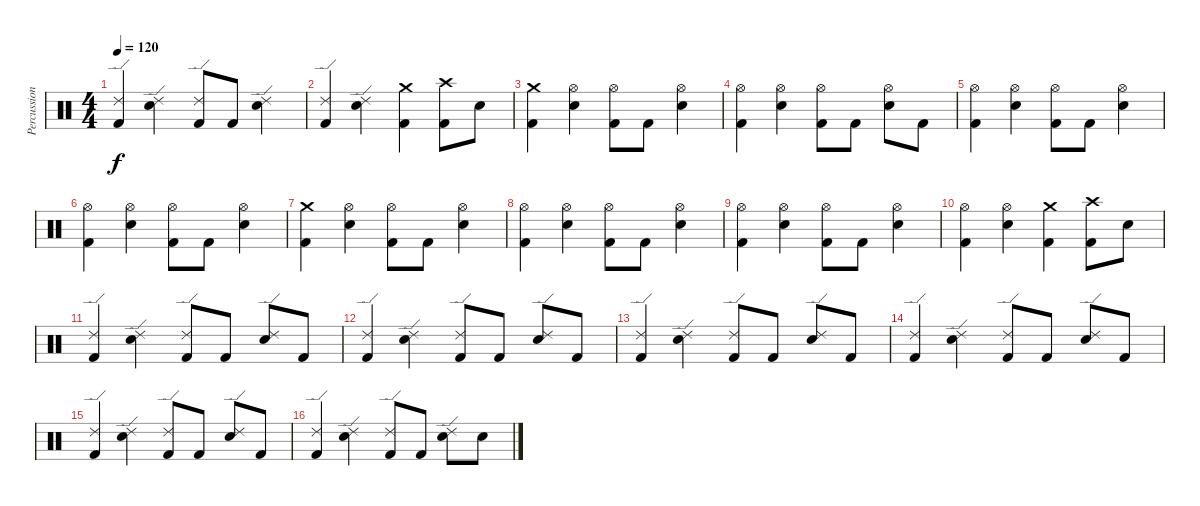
\track ("Percussion" "Percussion") {instrument percussion}
\staff {score}
\articulation defaults
\ts (4 4)
\tempo 120
\clef neutral
\ks c
("Ride (edge) 2" "Kick (hit) 2").4{dy f} ("Ride (edge) 2" "Snare (hit) 2").4 ("Ride (edge) 2" "Kick (hit) 2").8 "Kick (hit) 2".8 ("Ride (edge) 2" "Snare (hit) 2").4 |
("Ride (edge) 2" "Kick (hit) 2").4 ("Ride (edge) 2" "Snare (hit) 2").4 ("Crash medium (hit)" "Kick (hit) 2").4 ("Crash high (hit)" "Kick (hit) 2").8 "Snare (hit) 2".8 |
("Crash medium (hit)" "Kick (hit) 2").4 ("Hi-Hat (open)" "Snare (hit) 2").4 ("Hi-Hat (open)" "Kick (hit) 2").8 "Kick (hit) 2".8 ("Hi-Hat (open)" "Snare (hit) 2").4 |
("Hi-Hat (open)" "Kick (hit) 2").4 ("Hi-Hat (open)" "Snare (hit) 2").4 ("Hi-Hat (open)" "Kick (hit) 2").8 "Kick (hit) 2".8 ("Hi-Hat (open)" "Snare (hit) 2").8 "Kick (hit) 2".8 |
("Hi-Hat (open)" "Kick (hit) 2").4 ("Hi-Hat (open)" "Snare (hit) 2").4 ("Hi-Hat (open)" "Kick (hit) 2").8 "Kick (hit) 2".8 ("Hi-Hat (open)" "Snare (hit) 2").4 |
("Hi-Hat (open)" "Kick (hit) 2").4 ("Hi-Hat (open)" "Snare (hit) 2").4 ("Hi-Hat (open)" "Kick (hit) 2").8 "Kick (hit) 2".8 ("Hi-Hat (open)" "Snare (hit) 2").4 |
("Crash medium (hit)" "Kick (hit) 2").4 ("Hi-Hat (open)" "Snare (hit) 2").4 ("Hi-Hat (open)" "Kick (hit) 2").8 "Kick (hit) 2".8 ("Hi-Hat (open)" "Snare (hit) 2").4 |
("Hi-Hat (open)" "Kick (hit) 2").4 ("Hi-Hat (open)" "Snare (hit) 2").4 ("Hi-Hat (open)" "Kick (hit) 2").8 "Kick (hit) 2".8 ("Hi-Hat (open)" "Snare (hit) 2").4 |
("Hi-Hat (open)" "Kick (hit) 2").4 ("Hi-Hat (open)" "Snare (hit) 2").4 ("Hi-Hat (open)" "Kick (hit) 2").8 "Kick (hit) 2".8 ("Hi-Hat (open)" "Snare (hit) 2").4 |
("Hi-Hat (open)" "Kick (hit) 2").4 ("Hi-Hat (open)" "Snare (hit) 2").4 ("Crash medium (hit)" "Kick (hit) 2").4 ("Crash high (hit)" "Kick (hit) 2").8 "Snare (hit) 2".8 |
("Ride (edge) 2" "Kick (hit) 2").4 ("Ride (edge) 2" "Snare (hit) 2").4 ("Ride (edge) 2" "Kick (hit) 2").8 "Kick (hit) 2".8 ("Ride (edge) 2" "Snare (hit) 2").8 "Kick (hit) 2".8 |
("Ride (edge) 2" "Kick (hit) 2").4 ("Ride (edge) 2" "Snare (hit) 2").4 ("Ride (edge) 2" "Kick (hit) 2").8 "Kick (hit) 2".8 ("Ride (edge) 2" "Snare (hit) 2").8 "Kick (hit) 2".8 |
("Ride (edge) 2" "Kick (hit) 2").4 ("Ride (edge) 2" "Snare (hit) 2").4 ("Ride (edge) 2" "Kick (hit) 2").8 "Kick (hit) 2".8 ("Ride (edge) 2" "Snare (hit) 2").8 "Kick (hit) 2".8 |
("Ride (edge) 2" "Kick (hit) 2").4 ("Ride (edge) 2" "Snare (hit) 2").4 ("Ride (edge) 2" "Kick (hit) 2").8 "Kick (hit) 2".8 ("Ride (edge) 2" "Snare (hit) 2").8 "Kick (hit) 2".8 |
("Ride (edge) 2" "Kick (hit) 2").4 ("Ride (edge) 2" "Snare (hit) 2").4 ("Ride (edge) 2" "Kick (hit) 2").8 "Kick (hit) 2".8 ("Ride (edge) 2" "Snare (hit) 2").8 "Kick (hit) 2".8 |
("Ride (edge) 2" "Kick (hit) 2").4 ("Ride (edge) 2" "Snare (hit) 2").4 ("Ride (edge) 2" "Kick (hit) 2").8 "Kick (hit) 2".8 ("Ride (edge) 2" "Snare (hit) 2").8 "Snare (hit) 2".8
